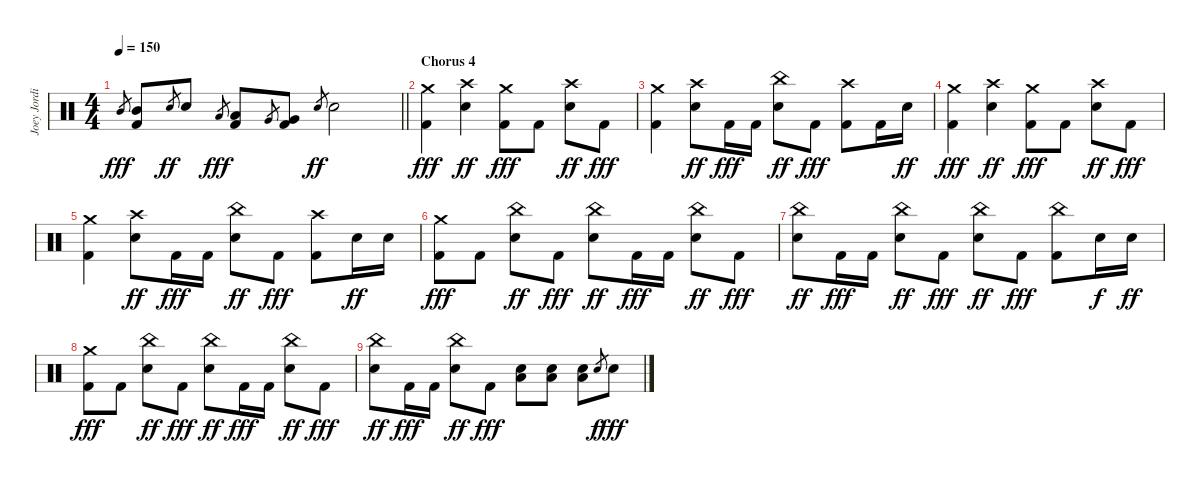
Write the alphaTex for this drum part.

\track ("Joey Jordison" "Joey Jordi") {instrument percussion}
\staff {score}
\articulation defaults
\ts (4 4)
\tempo 150
\clef neutral
\barLineRight lightlight
\ks c "Mid Tom (hit)".8{gr dy fff}
("Mid Tom (hit)" "Kick (hit) 2").8 "Electric Snare (hit)".8{gr dy ff} "Electric Snare (hit)".8 "Low Tom (hit)".8{gr dy fff} ("Low Tom (hit)" "Kick (hit) 2").8 "Very Low Tom (hit)".8{gr} ("Very Low Tom (hit)" "Kick (hit) 2").8 "Electric Snare (hit)".8{gr dy ff} "Electric Snare (hit)".2 |
\section ("" "Chorus 4")
("Crash medium (hit)" "Kick (hit) 2").4{dy fff} ("Crash high (hit)" "Electric Snare (hit)").4{dy ff} ("Crash medium (hit)" "Kick (hit) 2").8{dy fff} "Kick (hit) 2".8 ("Crash high (hit)" "Electric Snare (hit)").8{dy ff} "Kick (hit) 2".8{dy fff} |
("Crash medium (hit)" "Kick (hit) 2").4 ("Crash high (hit)" "Electric Snare (hit)").8{dy ff} "Kick (hit) 2".16{dy fff} "Kick (hit) 2".16 ("China (hit)" "Electric Snare (hit)").8{dy ff} "Kick (hit) 2".8{dy fff} ("Crash high (hit)" "Kick (hit) 2").8 "Kick (hit) 2".16 "Electric Snare (hit)".16{dy ff} |
("Crash medium (hit)" "Kick (hit) 2").4{dy fff} ("Crash high (hit)" "Electric Snare (hit)").4{dy ff} ("Crash medium (hit)" "Kick (hit) 2").8{dy fff} "Kick (hit) 2".8 ("Crash high (hit)" "Electric Snare (hit)").8{dy ff} "Kick (hit) 2".8{dy fff} |
("Crash medium (hit)" "Kick (hit) 2").4 ("Crash high (hit)" "Electric Snare (hit)").8{dy ff} "Kick (hit) 2".16{dy fff} "Kick (hit) 2".16 ("China (hit)" "Electric Snare (hit)").8{dy ff} "Kick (hit) 2".8{dy fff} ("Crash high (hit)" "Kick (hit) 2").8 "Electric Snare (hit)".16{dy ff} "Electric Snare (hit)".16 |
("Crash medium (hit)" "Kick (hit) 2").8{dy fff} "Kick (hit) 2".8 ("China (hit)" "Electric Snare (hit)").8{dy ff} "Kick (hit) 2".8{dy fff} ("China (hit)" "Electric Snare (hit)").8{dy ff} "Kick (hit) 2".16{dy fff} "Kick (hit) 2".16 ("China (hit)" "Electric Snare (hit)").8{dy ff} "Kick (hit) 2".8{dy fff} |
("China (hit)" "Electric Snare (hit)").8{dy ff} "Kick (hit) 2".16{dy fff} "Kick (hit) 2".16 ("China (hit)" "Electric Snare (hit)").8{dy ff} "Kick (hit) 2".8{dy fff} ("China (hit)" "Electric Snare (hit)").8{dy ff} "Kick (hit) 2".8{dy fff} ("China (hit)" "Kick (hit) 2").8 "Electric Snare (hit)".16{dy f} "Electric Snare (hit)".16{dy ff} |
("Crash medium (hit)" "Kick (hit) 2").8{dy fff} "Kick (hit) 2".8 ("China (hit)" "Electric Snare (hit)").8{dy ff} "Kick (hit) 2".8{dy fff} ("China (hit)" "Electric Snare (hit)").8{dy ff} "Kick (hit) 2".16{dy fff} "Kick (hit) 2".16 ("China (hit)" "Electric Snare (hit)").8{dy ff} "Kick (hit) 2".8{dy fff} |
("China (hit)" "Electric Snare (hit)").8{dy ff} "Kick (hit) 2".16{dy fff} "Kick (hit) 2".16 ("China (hit)" "Electric Snare (hit)").8{dy ff} "Kick (hit) 2".8{dy fff} ("Electric Snare (hit)" "Low Floor Tom (hit)").8 ("Electric Snare (hit)" "Low Floor Tom (hit)").8 ("Electric Snare (hit)" "Low Floor Tom (hit)").8 "Electric Snare (hit)".8{gr dy f} "Electric Snare (hit)".8{dy fff}
